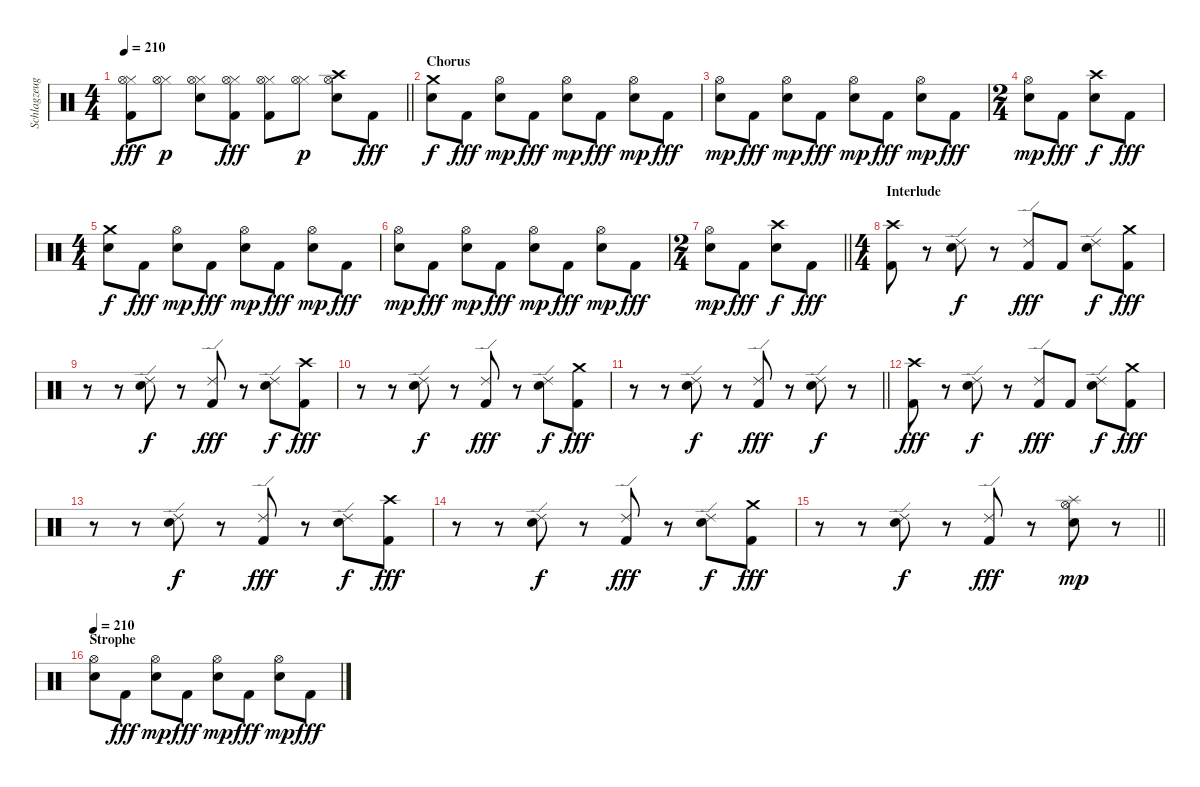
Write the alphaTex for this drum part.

\track ("Schlagzeug" "Schlagzeug") {instrument percussion}
\staff {score}
\articulation defaults
\ts (4 4)
\tempo 210
\clef neutral
\barLineRight lightlight
\ks c
("Hi-Hat (closed)" "Hi-Hat (open)" "Kick (hit) 2").8{dy fff} ("Hi-Hat (closed)" "Hi-Hat (open)").8{dy p} ("Hi-Hat (closed)" "Hi-Hat (open)" "Snare (hit) 2").8 ("Hi-Hat (closed)" "Hi-Hat (open)" "Kick (hit) 2").8{dy fff} ("Hi-Hat (closed)" "Hi-Hat (open)" "Kick (hit) 2").8 ("Hi-Hat (closed)" "Hi-Hat (open)").8{dy p} ("Crash high (hit)" "Hi-Hat (open)" "Snare (hit) 2").8 "Kick (hit) 2".8{dy fff} |
\section ("" "Chorus")
("Crash medium (hit)" "Snare (hit) 2").8{dy f} "Kick (hit) 2".8{dy fff} ("Hi-Hat (open)" "Snare (hit) 2").8{dy mp} "Kick (hit) 2".8{dy fff} ("Hi-Hat (open)" "Snare (hit) 2").8{dy mp} "Kick (hit) 2".8{dy fff} ("Hi-Hat (open)" "Snare (hit) 2").8{dy mp} "Kick (hit) 2".8{dy fff} |
("Hi-Hat (open)" "Snare (hit) 2").8{dy mp} "Kick (hit) 2".8{dy fff} ("Hi-Hat (open)" "Snare (hit) 2").8{dy mp} "Kick (hit) 2".8{dy fff} ("Hi-Hat (open)" "Snare (hit) 2").8{dy mp} "Kick (hit) 2".8{dy fff} ("Hi-Hat (open)" "Snare (hit) 2").8{dy mp} "Kick (hit) 2".8{dy fff} |
\ts (2 4)
("Hi-Hat (open)" "Snare (hit) 2").8{dy mp} "Kick (hit) 2".8{dy fff} ("Crash high (hit)" "Snare (hit) 2").8{dy f} "Kick (hit) 2".8{dy fff} |
\ts (4 4)
("Crash medium (hit)" "Snare (hit) 2").8{dy f} "Kick (hit) 2".8{dy fff} ("Hi-Hat (open)" "Snare (hit) 2").8{dy mp} "Kick (hit) 2".8{dy fff} ("Hi-Hat (open)" "Snare (hit) 2").8{dy mp} "Kick (hit) 2".8{dy fff} ("Hi-Hat (open)" "Snare (hit) 2").8{dy mp} "Kick (hit) 2".8{dy fff} |
("Hi-Hat (open)" "Snare (hit) 2").8{dy mp} "Kick (hit) 2".8{dy fff} ("Hi-Hat (open)" "Snare (hit) 2").8{dy mp} "Kick (hit) 2".8{dy fff} ("Hi-Hat (open)" "Snare (hit) 2").8{dy mp} "Kick (hit) 2".8{dy fff} ("Hi-Hat (open)" "Snare (hit) 2").8{dy mp} "Kick (hit) 2".8{dy fff} |
\ts (2 4)
\barLineRight lightlight
("Hi-Hat (open)" "Snare (hit) 2").8{dy mp} "Kick (hit) 2".8{dy fff} ("Crash high (hit)" "Snare (hit) 2").8{dy f} "Kick (hit) 2".8{dy fff} |
\ts (4 4)
\section ("" "Interlude")
("Crash high (hit)" "Kick (hit) 2").8 r.8 ("Ride (edge) 2" "Snare (hit) 2").8{dy f} r.8 ("Ride (edge) 2" "Kick (hit) 2").8{dy fff} "Kick (hit) 2".8 ("Ride (edge) 2" "Snare (hit) 2").8{dy f} ("Crash medium (hit)" "Kick (hit) 2").8{dy fff} |
r.8 r.8 ("Ride (edge) 2" "Snare (hit) 2").8{dy f} r.8 ("Ride (edge) 2" "Kick (hit) 2").8{dy fff} r.8 ("Ride (edge) 2" "Snare (hit) 2").8{dy f} ("Crash high (hit)" "Kick (hit) 2").8{dy fff} |
r.8 r.8 ("Ride (edge) 2" "Snare (hit) 2").8{dy f} r.8 ("Ride (edge) 2" "Kick (hit) 2").8{dy fff} r.8 ("Ride (edge) 2" "Snare (hit) 2").8{dy f} ("Crash medium (hit)" "Kick (hit) 2").8{dy fff} |
\barLineRight lightlight
r.8 r.8 ("Ride (edge) 2" "Snare (hit) 2").8{dy f} r.8 ("Ride (edge) 2" "Kick (hit) 2").8{dy fff} r.8 ("Ride (edge) 2" "Snare (hit) 2").8{dy f} r.8 |
("Crash high (hit)" "Kick (hit) 2").8{dy fff} r.8 ("Ride (edge) 2" "Snare (hit) 2").8{dy f} r.8 ("Ride (edge) 2" "Kick (hit) 2").8{dy fff} "Kick (hit) 2".8 ("Ride (edge) 2" "Snare (hit) 2").8{dy f} ("Crash medium (hit)" "Kick (hit) 2").8{dy fff} |
r.8 r.8 ("Ride (edge) 2" "Snare (hit) 2").8{dy f} r.8 ("Ride (edge) 2" "Kick (hit) 2").8{dy fff} r.8 ("Ride (edge) 2" "Snare (hit) 2").8{dy f} ("Crash high (hit)" "Kick (hit) 2").8{dy fff} |
r.8 r.8 ("Ride (edge) 2" "Snare (hit) 2").8{dy f} r.8 ("Ride (edge) 2" "Kick (hit) 2").8{dy fff} r.8 ("Ride (edge) 2" "Snare (hit) 2").8{dy f} ("Crash medium (hit)" "Kick (hit) 2").8{dy fff} |
\barLineRight lightlight
r.8 r.8 ("Ride (edge) 2" "Snare (hit) 2").8{dy f} r.8 ("Ride (edge) 2" "Kick (hit) 2").8{dy fff} r.8 ("Splash (hit)" "Hi-Hat (open)" "Snare (hit) 2").8{dy mp} r.8 |
\section ("" "Strophe")
\tempo 210
("Hi-Hat (open)" "Snare (hit) 2").8 "Kick (hit) 2".8{dy fff} ("Hi-Hat (open)" "Snare (hit) 2").8{dy mp} "Kick (hit) 2".8{dy fff} ("Hi-Hat (open)" "Snare (hit) 2").8{dy mp} "Kick (hit) 2".8{dy fff} ("Hi-Hat (open)" "Snare (hit) 2").8{dy mp} "Kick (hit) 2".8{dy fff}
